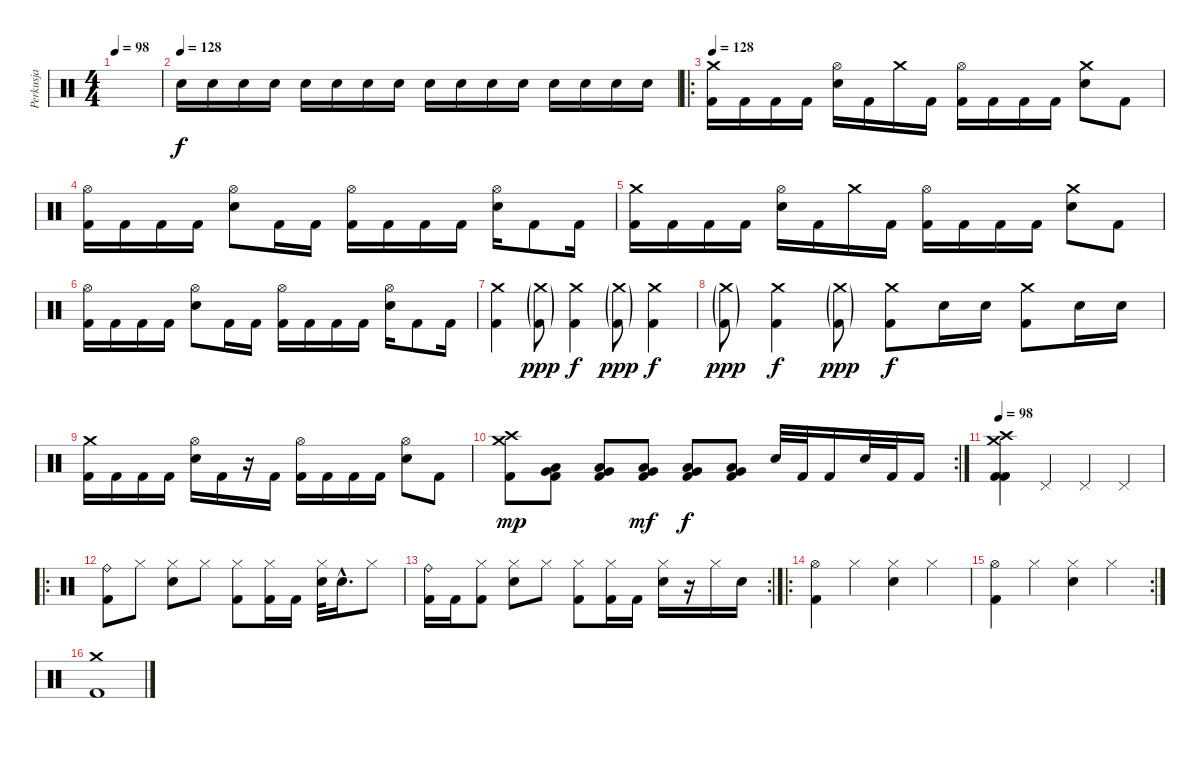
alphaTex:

\track ("Perkusja" "Perkusja") {instrument percussion}
\staff {score}
\articulation defaults
\ts (4 4)
\tempo 98
\clef neutral
\ks c
|
\tempo (128)
"Snare (hit) 2".16 "Snare (hit) 2".16 "Snare (hit) 2".16 "Snare (hit) 2".16 "Snare (hit) 2".16 "Snare (hit) 2".16 "Snare (hit) 2".16 "Snare (hit) 2".16 "Snare (hit) 2".16 "Snare (hit) 2".16 "Snare (hit) 2".16 "Snare (hit) 2".16 "Snare (hit) 2".16 "Snare (hit) 2".16 "Snare (hit) 2".16 "Snare (hit) 2".16 |
\ro
\tempo 128
("Crash medium (hit)" "Kick (hit) 2").16 "Kick (hit) 2".16 "Kick (hit) 2".16 "Kick (hit) 2".16 ("Hi-Hat (open)" "Snare (hit) 2").16 "Kick (hit) 2".16 "Crash medium (hit)".16 "Kick (hit) 2".16 ("Hi-Hat (open)" "Kick (hit) 2").16 "Kick (hit) 2".16 "Kick (hit) 2".16 "Kick (hit) 2".16 ("Crash medium (hit)" "Snare (hit) 2").8 "Kick (hit) 2".8 |
("Hi-Hat (open)" "Kick (hit) 2").16 "Kick (hit) 2".16 "Kick (hit) 2".16 "Kick (hit) 2".16 ("Hi-Hat (open)" "Snare (hit) 2").8 "Kick (hit) 2".16 "Kick (hit) 2".16 ("Hi-Hat (open)" "Kick (hit) 2").16 "Kick (hit) 2".16 "Kick (hit) 2".16 "Kick (hit) 2".16 ("Hi-Hat (open)" "Snare (hit) 2").16 "Kick (hit) 2".8 "Kick (hit) 2".16 |
("Crash medium (hit)" "Kick (hit) 2").16 "Kick (hit) 2".16 "Kick (hit) 2".16 "Kick (hit) 2".16 ("Hi-Hat (open)" "Snare (hit) 2").16 "Kick (hit) 2".16 "Crash medium (hit)".16 "Kick (hit) 2".16 ("Hi-Hat (open)" "Kick (hit) 2").16 "Kick (hit) 2".16 "Kick (hit) 2".16 "Kick (hit) 2".16 ("Crash medium (hit)" "Snare (hit) 2").8 "Kick (hit) 2".8 |
("Hi-Hat (open)" "Kick (hit) 2").16 "Kick (hit) 2".16 "Kick (hit) 2".16 "Kick (hit) 2".16 ("Hi-Hat (open)" "Snare (hit) 2").8 "Kick (hit) 2".16 "Kick (hit) 2".16 ("Hi-Hat (open)" "Kick (hit) 2").16 "Kick (hit) 2".16 "Kick (hit) 2".16 "Kick (hit) 2".16 ("Hi-Hat (open)" "Snare (hit) 2").16 "Kick (hit) 2".8 "Kick (hit) 2".16 |
("Crash medium (hit)" "Kick (hit) 2").4 ("Crash medium (hit)"{g} "Kick (hit) 2"{g}).8{dy ppp} ("Crash medium (hit)" "Kick (hit) 2").4{dy f} ("Crash medium (hit)"{g} "Kick (hit) 2"{g}).8{dy ppp} ("Crash medium (hit)" "Kick (hit) 2").4{dy f} |
("Crash medium (hit)"{g} "Kick (hit) 2"{g}).8{dy ppp} ("Crash medium (hit)" "Kick (hit) 2").4{dy f} ("Crash medium (hit)"{g} "Kick (hit) 2"{g}).8{dy ppp} ("Crash medium (hit)" "Kick (hit) 2").8{dy f} "Snare (hit) 2".16 "Snare (hit) 2".16 ("Crash medium (hit)" "Kick (hit) 2").8 "Snare (hit) 2".16 "Snare (hit) 2".16 |
("Crash medium (hit)" "Kick (hit) 2").16 "Kick (hit) 2".16 "Kick (hit) 2".16 "Kick (hit) 2".16 ("Hi-Hat (open)" "Snare (hit) 2").16 "Kick (hit) 2".16 r.16 "Kick (hit) 2".16 ("Hi-Hat (open)" "Kick (hit) 2").16 "Kick (hit) 2".16 "Kick (hit) 2".16 "Kick (hit) 2".16 ("Hi-Hat (open)" "Snare (hit) 2").8 "Kick (hit) 2".8 |
\rc 2
("Crash medium (hit)" "Crash high (hit)" "Kick (hit) 2").8{dy mp} ("Low Tom (hit)" "Very Low Tom (hit)" "Kick (hit) 2").8 ("Low Tom (hit)" "Very Low Tom (hit)" "Kick (hit) 2").8 ("Low Tom (hit)" "Very Low Tom (hit)" "Kick (hit) 2").8{dy mf} ("Low Tom (hit)" "Very Low Tom (hit)" "Kick (hit) 2").8{dy f} ("Low Tom (hit)" "Very Low Tom (hit)" "Kick (hit) 2").8 "Snare (hit) 2".32 "Kick (hit) 2".32 "Kick (hit) 2".16 "Snare (hit) 2".32 "Kick (hit) 2".32 "Kick (hit) 2".16 |
\tempo 98
("Crash medium (hit)" "Crash high (hit)" "Kick (hit) 2" "Kick (hit) 2").4 "Pedal Hi-Hat (hit)".4 "Pedal Hi-Hat (hit)".4 "Pedal Hi-Hat (hit)".4 |
\ro
("Ride (bell)" "Kick (hit) 2").8 "Hi-Hat (closed)".8 ("Hi-Hat (closed)" "Snare (hit) 2").8 "Hi-Hat (closed)".8 ("Hi-Hat (closed)" "Kick (hit) 2").8 ("Hi-Hat (closed)" "Kick (hit) 2").16 "Kick (hit) 2".16 ("Hi-Hat (closed)" "Snare (hit) 2").32 "Snare (hit) 2"{hac}.16{d} "Hi-Hat (closed)".8 |
\rc 2
("Ride (bell)" "Kick (hit) 2").16 "Kick (hit) 2".16 ("Hi-Hat (closed)" "Kick (hit) 2").8 ("Hi-Hat (closed)" "Snare (hit) 2").8 "Hi-Hat (closed)".8 ("Hi-Hat (closed)" "Kick (hit) 2").8 ("Hi-Hat (closed)" "Kick (hit) 2").16 "Kick (hit) 2".16 ("Hi-Hat (closed)" "Snare (hit) 2").16 r.16 "Hi-Hat (closed)".16 "Snare (hit) 2".16 |
\ro
("Hi-Hat (open)" "Kick (hit) 2").4 "Hi-Hat (closed)".4 ("Hi-Hat (closed)" "Snare (hit) 2").4 "Hi-Hat (closed)".4 |
\rc 2
("Hi-Hat (open)" "Kick (hit) 2").4 "Hi-Hat (closed)".4 ("Hi-Hat (closed)" "Snare (hit) 2").4 "Hi-Hat (closed)".4 |
("Crash medium (hit)" "Kick (hit) 2").1
